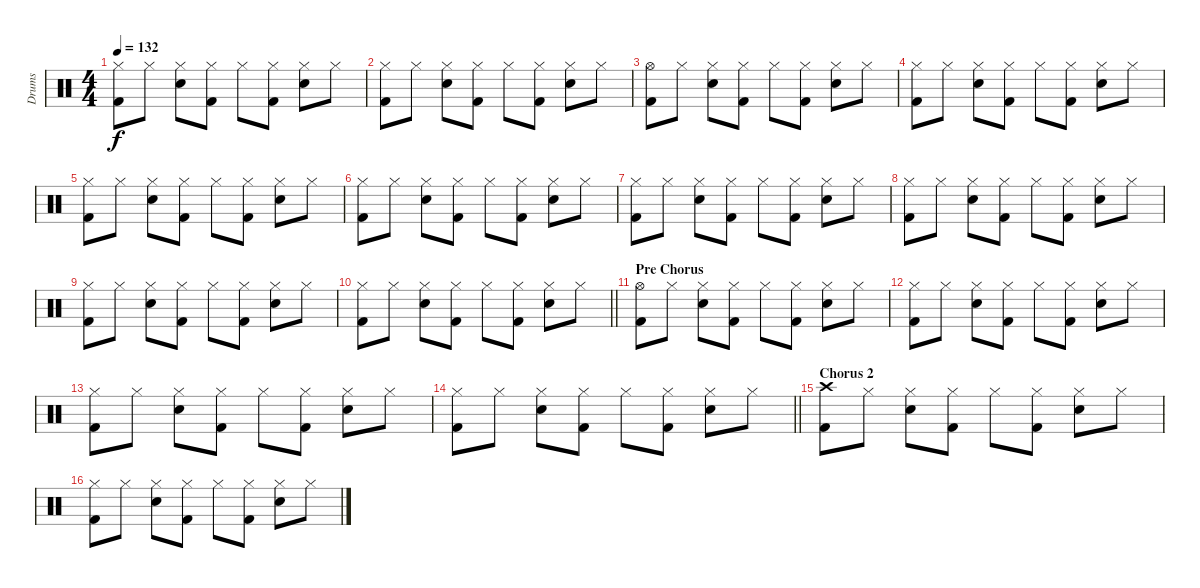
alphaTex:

\track ("Drums" "Drums") {instrument percussion}
\staff {score}
\articulation defaults
\ts (4 4)
\tempo 132
\clef neutral
\ks c
("Hi-Hat (closed)" "Kick (hit) 2").8{dy f} "Hi-Hat (closed)".8 ("Hi-Hat (closed)" "Electric Snare (hit)").8 ("Hi-Hat (closed)" "Kick (hit) 2").8 "Hi-Hat (closed)".8 ("Hi-Hat (closed)" "Kick (hit) 2").8 ("Hi-Hat (closed)" "Electric Snare (hit)").8 "Hi-Hat (closed)".8 |
("Hi-Hat (closed)" "Kick (hit) 2").8 "Hi-Hat (closed)".8 ("Hi-Hat (closed)" "Electric Snare (hit)").8 ("Hi-Hat (closed)" "Kick (hit) 2").8 "Hi-Hat (closed)".8 ("Hi-Hat (closed)" "Kick (hit) 2").8 ("Hi-Hat (closed)" "Electric Snare (hit)").8 "Hi-Hat (closed)".8 |
("Hi-Hat (open)" "Kick (hit) 2").8 "Hi-Hat (closed)".8 ("Hi-Hat (closed)" "Electric Snare (hit)").8 ("Hi-Hat (closed)" "Kick (hit) 2").8 "Hi-Hat (closed)".8 ("Hi-Hat (closed)" "Kick (hit) 2").8 ("Hi-Hat (closed)" "Electric Snare (hit)").8 "Hi-Hat (closed)".8 |
("Hi-Hat (closed)" "Kick (hit) 2").8 "Hi-Hat (closed)".8 ("Hi-Hat (closed)" "Electric Snare (hit)").8 ("Hi-Hat (closed)" "Kick (hit) 2").8 "Hi-Hat (closed)".8 ("Hi-Hat (closed)" "Kick (hit) 2").8 ("Hi-Hat (closed)" "Electric Snare (hit)").8 "Hi-Hat (closed)".8 |
("Hi-Hat (closed)" "Kick (hit) 2").8 "Hi-Hat (closed)".8 ("Hi-Hat (closed)" "Electric Snare (hit)").8 ("Hi-Hat (closed)" "Kick (hit) 2").8 "Hi-Hat (closed)".8 ("Hi-Hat (closed)" "Kick (hit) 2").8 ("Hi-Hat (closed)" "Electric Snare (hit)").8 "Hi-Hat (closed)".8 |
("Hi-Hat (closed)" "Kick (hit) 2").8 "Hi-Hat (closed)".8 ("Hi-Hat (closed)" "Electric Snare (hit)").8 ("Hi-Hat (closed)" "Kick (hit) 2").8 "Hi-Hat (closed)".8 ("Hi-Hat (closed)" "Kick (hit) 2").8 ("Hi-Hat (closed)" "Electric Snare (hit)").8 "Hi-Hat (closed)".8 |
("Hi-Hat (closed)" "Kick (hit) 2").8 "Hi-Hat (closed)".8 ("Hi-Hat (closed)" "Electric Snare (hit)").8 ("Hi-Hat (closed)" "Kick (hit) 2").8 "Hi-Hat (closed)".8 ("Hi-Hat (closed)" "Kick (hit) 2").8 ("Hi-Hat (closed)" "Electric Snare (hit)").8 "Hi-Hat (closed)".8 |
("Hi-Hat (closed)" "Kick (hit) 2").8 "Hi-Hat (closed)".8 ("Hi-Hat (closed)" "Electric Snare (hit)").8 ("Hi-Hat (closed)" "Kick (hit) 2").8 "Hi-Hat (closed)".8 ("Hi-Hat (closed)" "Kick (hit) 2").8 ("Hi-Hat (closed)" "Electric Snare (hit)").8 "Hi-Hat (closed)".8 |
("Hi-Hat (closed)" "Kick (hit) 2").8 "Hi-Hat (closed)".8 ("Hi-Hat (closed)" "Electric Snare (hit)").8 ("Hi-Hat (closed)" "Kick (hit) 2").8 "Hi-Hat (closed)".8 ("Hi-Hat (closed)" "Kick (hit) 2").8 ("Hi-Hat (closed)" "Electric Snare (hit)").8 "Hi-Hat (closed)".8 |
\barLineRight lightlight
("Hi-Hat (closed)" "Kick (hit) 2").8 "Hi-Hat (closed)".8 ("Hi-Hat (closed)" "Electric Snare (hit)").8 ("Hi-Hat (closed)" "Kick (hit) 2").8 "Hi-Hat (closed)".8 ("Hi-Hat (closed)" "Kick (hit) 2").8 ("Hi-Hat (closed)" "Electric Snare (hit)").8 "Hi-Hat (closed)".8 |
\section ("" "Pre Chorus")
("Hi-Hat (open)" "Kick (hit) 2").8 "Hi-Hat (closed)".8 ("Hi-Hat (closed)" "Electric Snare (hit)").8 ("Hi-Hat (closed)" "Kick (hit) 2").8 "Hi-Hat (closed)".8 ("Hi-Hat (closed)" "Kick (hit) 2").8 ("Hi-Hat (closed)" "Electric Snare (hit)").8 "Hi-Hat (closed)".8 |
("Hi-Hat (closed)" "Kick (hit) 2").8 "Hi-Hat (closed)".8 ("Hi-Hat (closed)" "Electric Snare (hit)").8 ("Hi-Hat (closed)" "Kick (hit) 2").8 "Hi-Hat (closed)".8 ("Hi-Hat (closed)" "Kick (hit) 2").8 ("Hi-Hat (closed)" "Electric Snare (hit)").8 "Hi-Hat (closed)".8 |
("Hi-Hat (closed)" "Kick (hit) 2").8 "Hi-Hat (closed)".8 ("Hi-Hat (closed)" "Electric Snare (hit)").8 ("Hi-Hat (closed)" "Kick (hit) 2").8 "Hi-Hat (closed)".8 ("Hi-Hat (closed)" "Kick (hit) 2").8 ("Hi-Hat (closed)" "Electric Snare (hit)").8 "Hi-Hat (closed)".8 |
\barLineRight lightlight
("Hi-Hat (closed)" "Kick (hit) 2").8 "Hi-Hat (closed)".8 ("Hi-Hat (closed)" "Electric Snare (hit)").8 ("Hi-Hat (closed)" "Kick (hit) 2").8 "Hi-Hat (closed)".8 ("Hi-Hat (closed)" "Kick (hit) 2").8 ("Hi-Hat (closed)" "Electric Snare (hit)").8 "Hi-Hat (closed)".8 |
\section ("" "Chorus 2")
("Crash high (hit)" "Kick (hit) 2").8 "Hi-Hat (closed)".8 ("Hi-Hat (closed)" "Electric Snare (hit)").8 ("Hi-Hat (closed)" "Kick (hit) 2").8 "Hi-Hat (closed)".8 ("Hi-Hat (closed)" "Kick (hit) 2").8 ("Hi-Hat (closed)" "Electric Snare (hit)").8 "Hi-Hat (closed)".8 |
("Hi-Hat (closed)" "Kick (hit) 2").8 "Hi-Hat (closed)".8 ("Hi-Hat (closed)" "Electric Snare (hit)").8 ("Hi-Hat (closed)" "Kick (hit) 2").8 "Hi-Hat (closed)".8 ("Hi-Hat (closed)" "Kick (hit) 2").8 ("Hi-Hat (closed)" "Electric Snare (hit)").8 "Hi-Hat (closed)".8
